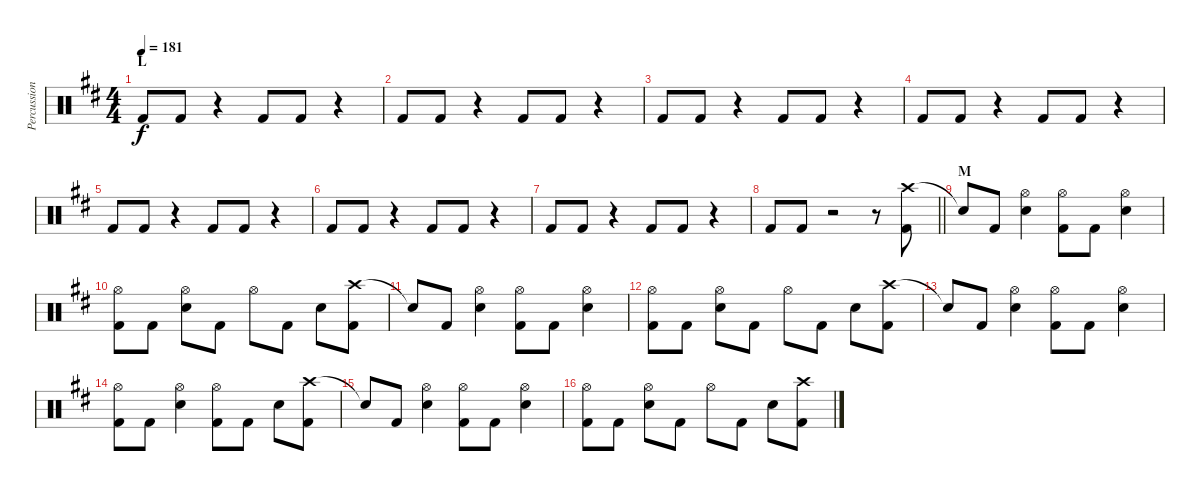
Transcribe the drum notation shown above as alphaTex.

\track ("Percussion" "Percussion") {instrument percussion}
\staff {score}
\articulation defaults
\ts (4 4)
\section ("" "L")
\tempo 181
\clef neutral
\ks d "Kick (hit) 2".8{dy f} "Kick (hit) 2".8
r.4 "Kick (hit) 2".8 "Kick (hit) 2".8 r.4 |
"Kick (hit) 2".8 "Kick (hit) 2".8 r.4 "Kick (hit) 2".8 "Kick (hit) 2".8 r.4 |
"Kick (hit) 2".8 "Kick (hit) 2".8 r.4 "Kick (hit) 2".8 "Kick (hit) 2".8 r.4 |
"Kick (hit) 2".8 "Kick (hit) 2".8 r.4 "Kick (hit) 2".8 "Kick (hit) 2".8 r.4 |
"Kick (hit) 2".8 "Kick (hit) 2".8 r.4 "Kick (hit) 2".8 "Kick (hit) 2".8 r.4 |
"Kick (hit) 2".8 "Kick (hit) 2".8 r.4 "Kick (hit) 2".8 "Kick (hit) 2".8 r.4 |
"Kick (hit) 2".8 "Kick (hit) 2".8 r.4 "Kick (hit) 2".8 "Kick (hit) 2".8 r.4 |
\barLineRight lightlight "Kick (hit) 2".8 "Kick (hit) 2".8
r.2 r.8 ("Crash high (hit)" "Kick (hit) 2").8 |
\section ("" "M")
"Snare (hit)"{t}.8 "Kick (hit) 2".8 ("Hi-Hat (open)" "Snare (hit) 2").4 ("Hi-Hat (open)" "Kick (hit) 2").8 "Kick (hit) 2".8 ("Hi-Hat (open)" "Snare (hit) 2").4 |
("Hi-Hat (open)" "Kick (hit) 2").8 "Kick (hit) 2".8 ("Hi-Hat (open)" "Snare (hit) 2").8 "Kick (hit) 2".8 "Hi-Hat (open)".8 "Kick (hit) 2".8 "Snare (hit) 2".8 ("Crash high (hit)" "Kick (hit) 2").8 |
"Snare (hit)"{t}.8 "Kick (hit) 2".8 ("Hi-Hat (open)" "Snare (hit) 2").4 ("Hi-Hat (open)" "Kick (hit) 2").8 "Kick (hit) 2".8 ("Hi-Hat (open)" "Snare (hit) 2").4 |
("Hi-Hat (open)" "Kick (hit) 2").8 "Kick (hit) 2".8 ("Hi-Hat (open)" "Snare (hit) 2").8 "Kick (hit) 2".8 "Hi-Hat (open)".8 "Kick (hit) 2".8 "Snare (hit) 2".8 ("Crash high (hit)" "Kick (hit) 2").8 |
"Snare (hit)"{t}.8 "Kick (hit) 2".8 ("Hi-Hat (open)" "Snare (hit) 2").4 ("Hi-Hat (open)" "Kick (hit) 2").8 "Kick (hit) 2".8 ("Hi-Hat (open)" "Snare (hit) 2").4 |
("Hi-Hat (open)" "Kick (hit) 2").8 "Kick (hit) 2".8 ("Hi-Hat (open)" "Snare (hit) 2").4 ("Hi-Hat (open)" "Kick (hit) 2").8 "Kick (hit) 2".8 "Snare (hit) 2".8 ("Crash high (hit)" "Kick (hit) 2").8 |
"Snare (hit)"{t}.8 "Kick (hit) 2".8 ("Hi-Hat (open)" "Snare (hit) 2").4 ("Hi-Hat (open)" "Kick (hit) 2").8 "Kick (hit) 2".8 ("Hi-Hat (open)" "Snare (hit) 2").4 |
("Hi-Hat (open)" "Kick (hit) 2").8 "Kick (hit) 2".8 ("Hi-Hat (open)" "Snare (hit) 2").8 "Kick (hit) 2".8 "Hi-Hat (open)".8 "Kick (hit) 2".8 "Snare (hit) 2".8 ("Crash high (hit)" "Kick (hit) 2").8
